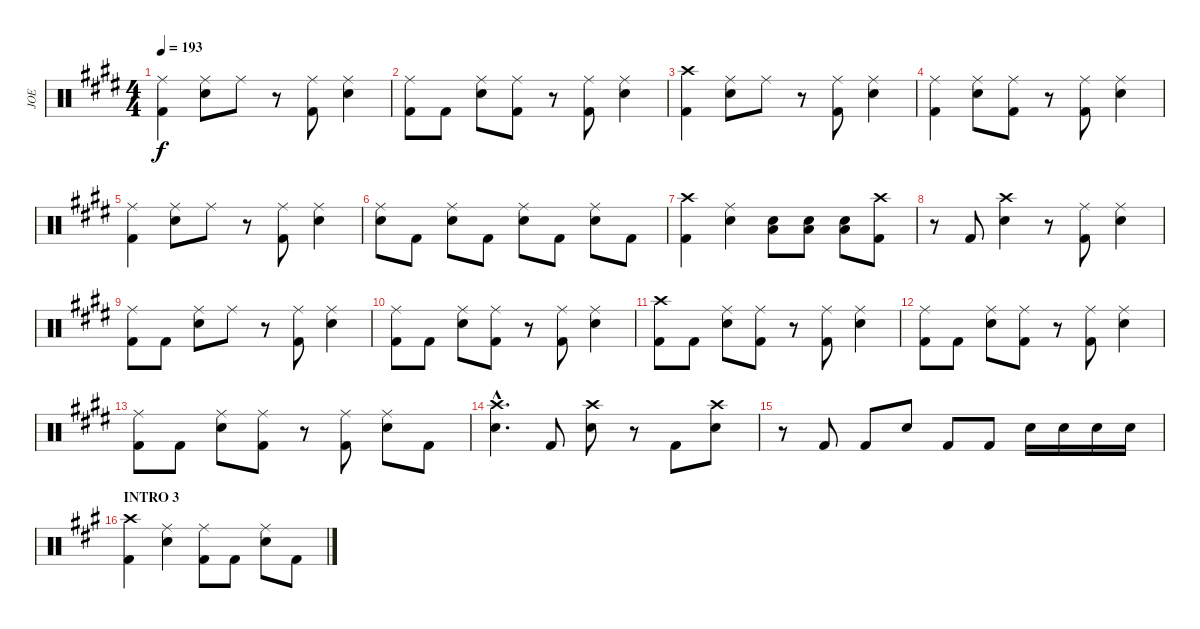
\track ("JOE" "JOE") {instrument percussion}
\staff {score}
\articulation defaults
\ts (4 4)
\tempo 193
\clef neutral
\ks c#minor
("Ride (middle)" "Kick (hit) 2").4{dy f} ("Ride (middle)" "Snare (hit) 2").8 "Ride (middle)".8 r.8 ("Ride (middle)" "Kick (hit) 2").8 ("Ride (middle)" "Snare (hit) 2").4 |
("Ride (middle)" "Kick (hit) 2").8 "Kick (hit) 2".8 ("Ride (middle)" "Snare (hit) 2").8 ("Ride (middle)" "Kick (hit) 2").8 r.8 ("Ride (middle)" "Kick (hit) 2").8 ("Ride (middle)" "Snare (hit) 2").4 |
("Crash high (hit)" "Kick (hit) 2").4 ("Ride (middle)" "Snare (hit) 2").8 "Ride (middle)".8 r.8 ("Ride (middle)" "Kick (hit) 2").8 ("Ride (middle)" "Snare (hit) 2").4 |
("Ride (middle)" "Kick (hit) 2").4 ("Ride (middle)" "Snare (hit) 2").8 ("Ride (middle)" "Kick (hit) 2").8 r.8 ("Ride (middle)" "Kick (hit) 2").8 ("Ride (middle)" "Snare (hit) 2").4 |
("Ride (middle)" "Kick (hit) 2").4 ("Ride (middle)" "Snare (hit) 2").8 "Ride (middle)".8 r.8 ("Ride (middle)" "Kick (hit) 2").8 ("Ride (middle)" "Snare (hit) 2").4 |
("Ride (middle)" "Snare (hit) 2").8 "Kick (hit) 2".8 ("Ride (middle)" "Snare (hit) 2").8 "Kick (hit) 2".8 ("Ride (middle)" "Snare (hit) 2").8 "Kick (hit) 2".8 ("Ride (middle)" "Snare (hit) 2").8 "Kick (hit) 2".8 |
("Crash high (hit)" "Kick (hit) 2").4 ("Ride (middle)" "Snare (hit) 2").4 ("Snare (hit) 2" "Low Floor Tom (hit)").8 ("Snare (hit) 2" "Low Floor Tom (hit)").8 ("Snare (hit) 2" "Low Floor Tom (hit)").8 ("Crash high (hit)" "Kick (hit) 2").8 |
r.8 "Kick (hit) 2".8 ("Crash high (hit)" "Snare (hit) 2").4 r.8 ("Ride (middle)" "Kick (hit) 2").8 ("Ride (middle)" "Snare (hit) 2").4 |
("Ride (middle)" "Kick (hit) 2").8 "Kick (hit) 2".8 ("Ride (middle)" "Snare (hit) 2").8 "Ride (middle)".8 r.8 ("Ride (middle)" "Kick (hit) 2").8 ("Ride (middle)" "Snare (hit) 2").4 |
("Ride (middle)" "Kick (hit) 2").8 "Kick (hit) 2".8 ("Ride (middle)" "Snare (hit) 2").8 ("Ride (middle)" "Kick (hit) 2").8 r.8 ("Ride (middle)" "Kick (hit) 2").8 ("Ride (middle)" "Snare (hit) 2").4 |
("Crash high (hit)" "Kick (hit) 2").8 "Kick (hit) 2".8 ("Ride (middle)" "Snare (hit) 2").8 ("Ride (middle)" "Kick (hit) 2").8 r.8 ("Ride (middle)" "Kick (hit) 2").8 ("Ride (middle)" "Snare (hit) 2").4 |
("Ride (middle)" "Kick (hit) 2").8 "Kick (hit) 2".8 ("Ride (middle)" "Snare (hit) 2").8 ("Ride (middle)" "Kick (hit) 2").8 r.8 ("Ride (middle)" "Kick (hit) 2").8 ("Ride (middle)" "Snare (hit) 2").4 |
("Ride (middle)" "Kick (hit) 2").8 "Kick (hit) 2".8 ("Ride (middle)" "Snare (hit) 2").8 ("Ride (middle)" "Kick (hit) 2").8 r.8 ("Ride (middle)" "Kick (hit) 2").8 ("Ride (middle)" "Snare (hit) 2").8 "Kick (hit) 2".8 |
("Crash high (hit)"{hac} "Snare (hit) 2"{hac}).4{d} "Kick (hit) 2".8 ("Crash high (hit)" "Snare (hit) 2").8 r.8 "Kick (hit) 2".8 ("Crash high (hit)" "Snare (hit) 2").8 |
r.8 "Kick (hit) 2".8 "Kick (hit) 2".8 "Snare (hit) 2".8 "Kick (hit) 2".8 "Kick (hit) 2".8 "Snare (hit) 2".16 "Snare (hit) 2".16 "Snare (hit) 2".16 "Snare (hit) 2".16 |
\section ("" "INTRO 3")
\ks a
("Crash high (hit)" "Kick (hit) 2").4 ("Ride (middle)" "Snare (hit) 2").4 ("Ride (middle)" "Kick (hit) 2").8 "Kick (hit) 2".8 ("Ride (middle)" "Snare (hit) 2").8 "Kick (hit) 2".8
